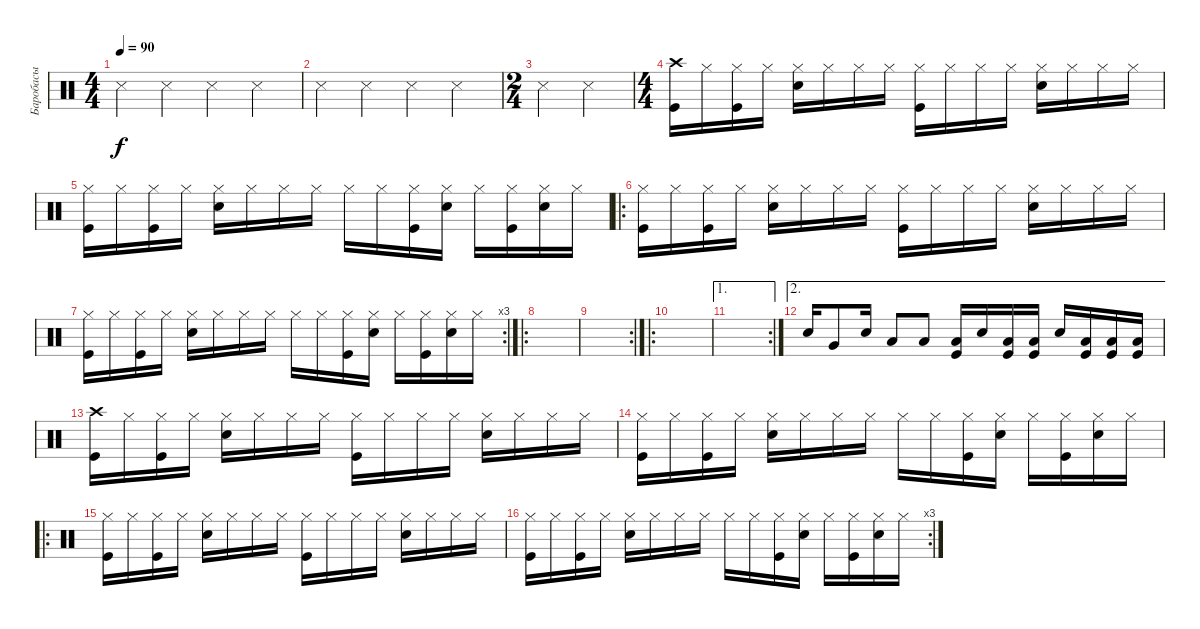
\track ("Баробасы" "Баробасы") {instrument percussion}
\staff {score}
\articulation defaults
\ts (4 4)
\tempo 90
\clef neutral
\ks c "Snare (side stick) 3".4{dy f} "Snare (side stick) 3".4 "Snare (side stick) 3".4 "Snare (side stick) 3".4
|
"Snare (side stick) 3".4 "Snare (side stick) 3".4 "Snare (side stick) 3".4 "Snare (side stick) 3".4 |
\ts (2 4)
"Snare (side stick) 3".4 "Snare (side stick) 3".4 |
\ts (4 4)
("Crash high (hit)" "Kick (hit)").16 "Hi-Hat (closed)".16 ("Hi-Hat (closed)" "Kick (hit)").16 "Hi-Hat (closed)".16 ("Hi-Hat (closed)" "Snare (hit) 2").16 "Hi-Hat (closed)".16 "Hi-Hat (closed)".16 "Hi-Hat (closed)".16 ("Hi-Hat (closed)" "Kick (hit)").16 "Hi-Hat (closed)".16 "Hi-Hat (closed)".16 "Hi-Hat (closed)".16 ("Hi-Hat (closed)" "Snare (hit) 2").16 "Hi-Hat (closed)".16 "Hi-Hat (closed)".16 "Hi-Hat (closed)".16 |
("Hi-Hat (closed)" "Kick (hit)").16 "Hi-Hat (closed)".16 ("Hi-Hat (closed)" "Kick (hit)").16 "Hi-Hat (closed)".16 ("Hi-Hat (closed)" "Snare (hit) 2").16 "Hi-Hat (closed)".16 "Hi-Hat (closed)".16 "Hi-Hat (closed)".16 "Hi-Hat (closed)".16 "Hi-Hat (closed)".16 ("Hi-Hat (closed)" "Kick (hit)").16 ("Hi-Hat (closed)" "Snare (hit) 2").16 "Hi-Hat (closed)".16 ("Hi-Hat (closed)" "Kick (hit)").16 ("Hi-Hat (closed)" "Snare (hit) 2").16 "Hi-Hat (closed)".16 |
\ro
("Hi-Hat (closed)" "Kick (hit)").16 "Hi-Hat (closed)".16 ("Hi-Hat (closed)" "Kick (hit)").16 "Hi-Hat (closed)".16 ("Hi-Hat (closed)" "Snare (hit) 2").16 "Hi-Hat (closed)".16 "Hi-Hat (closed)".16 "Hi-Hat (closed)".16 ("Hi-Hat (closed)" "Kick (hit)").16 "Hi-Hat (closed)".16 "Hi-Hat (closed)".16 "Hi-Hat (closed)".16 ("Hi-Hat (closed)" "Snare (hit) 2").16 "Hi-Hat (closed)".16 "Hi-Hat (closed)".16 "Hi-Hat (closed)".16 |
\rc 3
("Hi-Hat (closed)" "Kick (hit)").16 "Hi-Hat (closed)".16 ("Hi-Hat (closed)" "Kick (hit)").16 "Hi-Hat (closed)".16 ("Hi-Hat (closed)" "Snare (hit) 2").16 "Hi-Hat (closed)".16 "Hi-Hat (closed)".16 "Hi-Hat (closed)".16 "Hi-Hat (closed)".16 "Hi-Hat (closed)".16 ("Hi-Hat (closed)" "Kick (hit)").16 ("Hi-Hat (closed)" "Snare (hit) 2").16 "Hi-Hat (closed)".16 ("Hi-Hat (closed)" "Kick (hit)").16 ("Hi-Hat (closed)" "Snare (hit) 2").16 "Hi-Hat (closed)".16 |
\ro
|
\rc 2
|
\ro
|
\ae 1
\rc 2
|
\ae 2 "Electric Snare (hit)".16 "Very Low Tom (hit)".8 "Electric Snare (hit)".16 "Low Floor Tom (hit)".8 "Low Floor Tom (hit)".8
("Kick (hit)" "Low Floor Tom (hit)").16 "Electric Snare (hit)".16 ("Kick (hit)" "Low Floor Tom (hit)").16 ("Kick (hit)" "Low Floor Tom (hit)").16 "Electric Snare (hit)".16 ("Kick (hit)" "Low Floor Tom (hit)").16 ("Kick (hit)" "Low Floor Tom (hit)").16 ("Kick (hit)" "Low Floor Tom (hit)").16 |
("Crash high (hit)" "Kick (hit)").16 "Hi-Hat (closed)".16 ("Hi-Hat (closed)" "Kick (hit)").16 "Hi-Hat (closed)".16 ("Hi-Hat (closed)" "Snare (hit) 2").16 "Hi-Hat (closed)".16 "Hi-Hat (closed)".16 "Hi-Hat (closed)".16 ("Hi-Hat (closed)" "Kick (hit)").16 "Hi-Hat (closed)".16 "Hi-Hat (closed)".16 "Hi-Hat (closed)".16 ("Hi-Hat (closed)" "Snare (hit) 2").16 "Hi-Hat (closed)".16 "Hi-Hat (closed)".16 "Hi-Hat (closed)".16 |
("Hi-Hat (closed)" "Kick (hit)").16 "Hi-Hat (closed)".16 ("Hi-Hat (closed)" "Kick (hit)").16 "Hi-Hat (closed)".16 ("Hi-Hat (closed)" "Snare (hit) 2").16 "Hi-Hat (closed)".16 "Hi-Hat (closed)".16 "Hi-Hat (closed)".16 "Hi-Hat (closed)".16 "Hi-Hat (closed)".16 ("Hi-Hat (closed)" "Kick (hit)").16 ("Hi-Hat (closed)" "Snare (hit) 2").16 "Hi-Hat (closed)".16 ("Hi-Hat (closed)" "Kick (hit)").16 ("Hi-Hat (closed)" "Snare (hit) 2").16 "Hi-Hat (closed)".16 |
\ro
("Hi-Hat (closed)" "Kick (hit)").16 "Hi-Hat (closed)".16 ("Hi-Hat (closed)" "Kick (hit)").16 "Hi-Hat (closed)".16 ("Hi-Hat (closed)" "Snare (hit) 2").16 "Hi-Hat (closed)".16 "Hi-Hat (closed)".16 "Hi-Hat (closed)".16 ("Hi-Hat (closed)" "Kick (hit)").16 "Hi-Hat (closed)".16 "Hi-Hat (closed)".16 "Hi-Hat (closed)".16 ("Hi-Hat (closed)" "Snare (hit) 2").16 "Hi-Hat (closed)".16 "Hi-Hat (closed)".16 "Hi-Hat (closed)".16 |
\rc 3
("Hi-Hat (closed)" "Kick (hit)").16 "Hi-Hat (closed)".16 ("Hi-Hat (closed)" "Kick (hit)").16 "Hi-Hat (closed)".16 ("Hi-Hat (closed)" "Snare (hit) 2").16 "Hi-Hat (closed)".16 "Hi-Hat (closed)".16 "Hi-Hat (closed)".16 "Hi-Hat (closed)".16 "Hi-Hat (closed)".16 ("Hi-Hat (closed)" "Kick (hit)").16 ("Hi-Hat (closed)" "Snare (hit) 2").16 "Hi-Hat (closed)".16 ("Hi-Hat (closed)" "Kick (hit)").16 ("Hi-Hat (closed)" "Snare (hit) 2").16 "Hi-Hat (closed)".16
